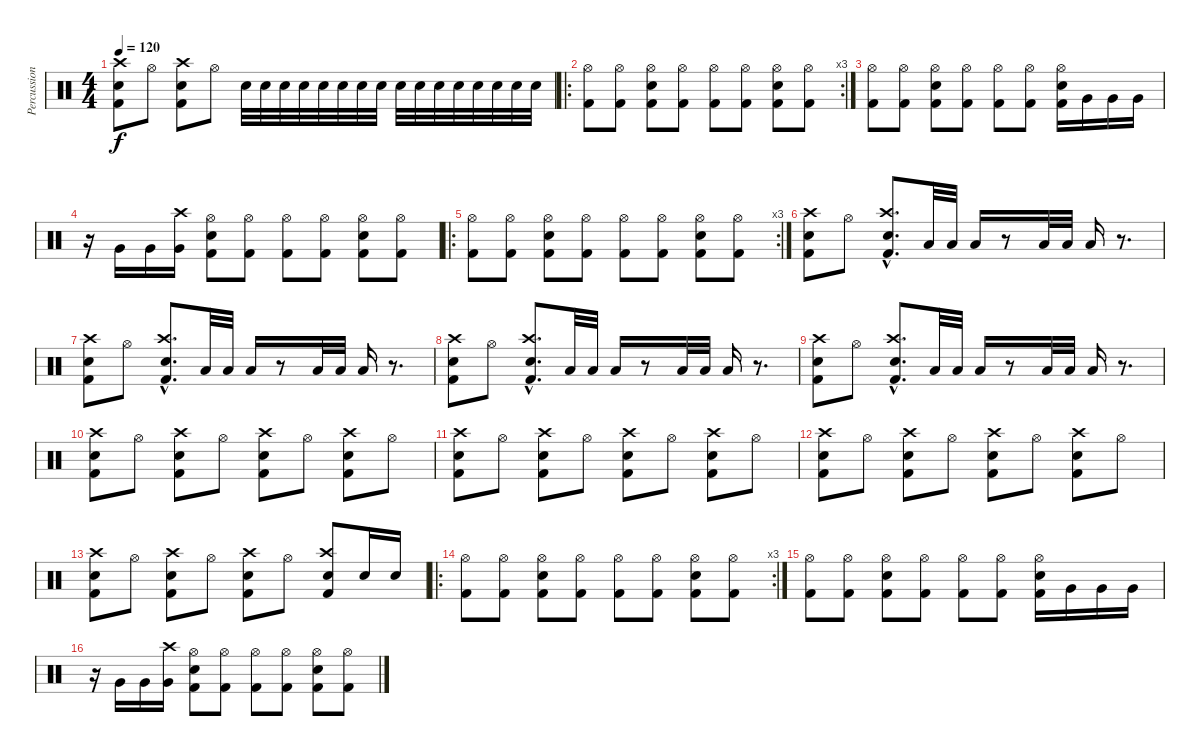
\track ("Percussions" "Percussion") {instrument percussion}
\staff {score}
\articulation defaults
\ts (4 4)
\tempo 120
\clef neutral
\ks c
("Snare (hit) 2" "Crash high (hit)" "Kick (hit) 2").8{dy f} "Hi-Hat (open)".8 ("Snare (hit) 2" "Crash high (hit)" "Kick (hit) 2").8 "Hi-Hat (open)".8 "Snare (hit) 2".32 "Snare (hit) 2".32 "Snare (hit) 2".32 "Snare (hit) 2".32 "Snare (hit) 2".32 "Snare (hit) 2".32 "Snare (hit) 2".32 "Snare (hit) 2".32 "Snare (hit) 2".32 "Snare (hit) 2".32 "Snare (hit) 2".32 "Snare (hit) 2".32 "Snare (hit) 2".32 "Snare (hit) 2".32 "Snare (hit) 2".32 "Snare (hit) 2".32 |
\ro
\rc 3
("Hi-Hat (open)" "Kick (hit) 2").8 ("Hi-Hat (open)" "Kick (hit) 2").8 ("Snare (hit) 2" "Hi-Hat (open)" "Kick (hit) 2").8 ("Hi-Hat (open)" "Kick (hit) 2").8 ("Hi-Hat (open)" "Kick (hit) 2").8 ("Hi-Hat (open)" "Kick (hit) 2").8 ("Snare (hit) 2" "Hi-Hat (open)" "Kick (hit) 2").8 ("Hi-Hat (open)" "Kick (hit) 2").8 |
("Hi-Hat (open)" "Kick (hit) 2").8 ("Hi-Hat (open)" "Kick (hit) 2").8 ("Snare (hit) 2" "Hi-Hat (open)" "Kick (hit) 2").8 ("Hi-Hat (open)" "Kick (hit) 2").8 ("Hi-Hat (open)" "Kick (hit) 2").8 ("Hi-Hat (open)" "Kick (hit) 2").8 ("Snare (hit) 2" "Hi-Hat (open)" "Kick (hit) 2").16 "Very Low Tom (hit)".16 "Very Low Tom (hit)".16 "Very Low Tom (hit)".16 |
r.16 "Very Low Tom (hit)".16 "Very Low Tom (hit)".16 ("Crash high (hit)" "Very Low Tom (hit)").16 ("Snare (hit) 2" "Hi-Hat (open)" "Kick (hit) 2").8 ("Hi-Hat (open)" "Kick (hit) 2").8 ("Hi-Hat (open)" "Kick (hit) 2").8 ("Hi-Hat (open)" "Kick (hit) 2").8 ("Snare (hit) 2" "Hi-Hat (open)" "Kick (hit) 2").8 ("Hi-Hat (open)" "Kick (hit) 2").8 |
\ro
\rc 3
("Hi-Hat (open)" "Kick (hit) 2").8 ("Hi-Hat (open)" "Kick (hit) 2").8 ("Snare (hit) 2" "Hi-Hat (open)" "Kick (hit) 2").8 ("Hi-Hat (open)" "Kick (hit) 2").8 ("Hi-Hat (open)" "Kick (hit) 2").8 ("Hi-Hat (open)" "Kick (hit) 2").8 ("Snare (hit) 2" "Hi-Hat (open)" "Kick (hit) 2").8 ("Hi-Hat (open)" "Kick (hit) 2").8 |
("Snare (hit) 2" "Crash high (hit)" "Kick (hit) 2").8 "Hi-Hat (open)".8 ("Snare (hit) 2"{hac} "Crash high (hit)"{hac} "Kick (hit) 2"{hac}).8{d} "Low Floor Tom (hit)".32 "Low Floor Tom (hit)".32 "Low Floor Tom (hit)".16 r.8 "Low Floor Tom (hit)".32 "Low Floor Tom (hit)".32 "Low Floor Tom (hit)".16 r.8{d} |
("Snare (hit) 2" "Crash high (hit)" "Kick (hit) 2").8 "Hi-Hat (open)".8 ("Snare (hit) 2"{hac} "Crash high (hit)"{hac} "Kick (hit) 2"{hac}).8{d} "Low Floor Tom (hit)".32 "Low Floor Tom (hit)".32 "Low Floor Tom (hit)".16 r.8 "Low Floor Tom (hit)".32 "Low Floor Tom (hit)".32 "Low Floor Tom (hit)".16 r.8{d} |
("Snare (hit) 2" "Crash high (hit)" "Kick (hit) 2").8 "Hi-Hat (open)".8 ("Snare (hit) 2"{hac} "Crash high (hit)"{hac} "Kick (hit) 2"{hac}).8{d} "Low Floor Tom (hit)".32 "Low Floor Tom (hit)".32 "Low Floor Tom (hit)".16 r.8 "Low Floor Tom (hit)".32 "Low Floor Tom (hit)".32 "Low Floor Tom (hit)".16 r.8{d} |
("Snare (hit) 2" "Crash high (hit)" "Kick (hit) 2").8 "Hi-Hat (open)".8 ("Snare (hit) 2"{hac} "Crash high (hit)"{hac} "Kick (hit) 2"{hac}).8{d} "Low Floor Tom (hit)".32 "Low Floor Tom (hit)".32 "Low Floor Tom (hit)".16 r.8 "Low Floor Tom (hit)".32 "Low Floor Tom (hit)".32 "Low Floor Tom (hit)".16 r.8{d} |
("Snare (hit) 2" "Crash high (hit)" "Kick (hit) 2").8 "Hi-Hat (open)".8 ("Snare (hit) 2" "Crash high (hit)" "Kick (hit) 2").8 "Hi-Hat (open)".8 ("Snare (hit) 2" "Crash high (hit)" "Kick (hit) 2").8 "Hi-Hat (open)".8 ("Snare (hit) 2" "Crash high (hit)" "Kick (hit) 2").8 "Hi-Hat (open)".8 |
("Snare (hit) 2" "Crash high (hit)" "Kick (hit) 2").8 "Hi-Hat (open)".8 ("Snare (hit) 2" "Crash high (hit)" "Kick (hit) 2").8 "Hi-Hat (open)".8 ("Snare (hit) 2" "Crash high (hit)" "Kick (hit) 2").8 "Hi-Hat (open)".8 ("Snare (hit) 2" "Crash high (hit)" "Kick (hit) 2").8 "Hi-Hat (open)".8 |
("Snare (hit) 2" "Crash high (hit)" "Kick (hit) 2").8 "Hi-Hat (open)".8 ("Snare (hit) 2" "Crash high (hit)" "Kick (hit) 2").8 "Hi-Hat (open)".8 ("Snare (hit) 2" "Crash high (hit)" "Kick (hit) 2").8 "Hi-Hat (open)".8 ("Snare (hit) 2" "Crash high (hit)" "Kick (hit) 2").8 "Hi-Hat (open)".8 |
("Snare (hit) 2" "Crash high (hit)" "Kick (hit) 2").8 "Hi-Hat (open)".8 ("Snare (hit) 2" "Crash high (hit)" "Kick (hit) 2").8 "Hi-Hat (open)".8 ("Snare (hit) 2" "Crash high (hit)" "Kick (hit) 2").8 "Hi-Hat (open)".8 ("Snare (hit) 2" "Crash high (hit)" "Kick (hit) 2").8 "Snare (hit) 2".16 "Snare (hit) 2".16 |
\ro
\rc 3
("Hi-Hat (open)" "Kick (hit) 2").8 ("Hi-Hat (open)" "Kick (hit) 2").8 ("Snare (hit) 2" "Hi-Hat (open)" "Kick (hit) 2").8 ("Hi-Hat (open)" "Kick (hit) 2").8 ("Hi-Hat (open)" "Kick (hit) 2").8 ("Hi-Hat (open)" "Kick (hit) 2").8 ("Snare (hit) 2" "Hi-Hat (open)" "Kick (hit) 2").8 ("Hi-Hat (open)" "Kick (hit) 2").8 |
("Hi-Hat (open)" "Kick (hit) 2").8 ("Hi-Hat (open)" "Kick (hit) 2").8 ("Snare (hit) 2" "Hi-Hat (open)" "Kick (hit) 2").8 ("Hi-Hat (open)" "Kick (hit) 2").8 ("Hi-Hat (open)" "Kick (hit) 2").8 ("Hi-Hat (open)" "Kick (hit) 2").8 ("Snare (hit) 2" "Hi-Hat (open)" "Kick (hit) 2").16 "Very Low Tom (hit)".16 "Very Low Tom (hit)".16 "Very Low Tom (hit)".16 |
r.16 "Very Low Tom (hit)".16 "Very Low Tom (hit)".16 ("Crash high (hit)" "Very Low Tom (hit)").16 ("Snare (hit) 2" "Hi-Hat (open)" "Kick (hit) 2").8 ("Hi-Hat (open)" "Kick (hit) 2").8 ("Hi-Hat (open)" "Kick (hit) 2").8 ("Hi-Hat (open)" "Kick (hit) 2").8 ("Snare (hit) 2" "Hi-Hat (open)" "Kick (hit) 2").8 ("Hi-Hat (open)" "Kick (hit) 2").8
